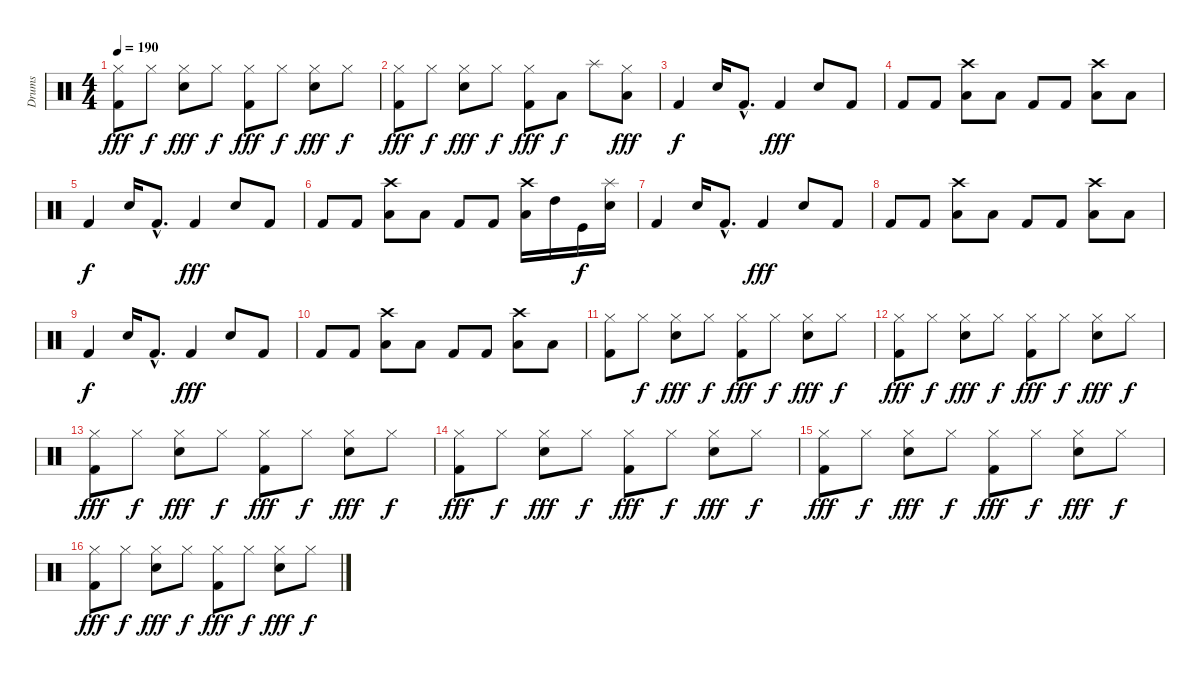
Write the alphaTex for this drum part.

\track ("Drums" "Drums") {instrument percussion}
\staff {score}
\articulation defaults
\ts (4 4)
\tempo 190
\clef neutral
\ks c
("Kick (hit) 2" "Hi-Hat (closed)").8{dy fff} "Hi-Hat (closed)".8{dy f} ("Snare (hit) 2" "Hi-Hat (closed)").8{dy fff} "Hi-Hat (closed)".8{dy f} ("Kick (hit) 2" "Hi-Hat (closed)").8{dy fff} "Hi-Hat (closed)".8{dy f} ("Snare (hit) 2" "Hi-Hat (closed)").8{dy fff} "Hi-Hat (closed)".8{dy f} |
("Kick (hit) 2" "Hi-Hat (closed)").8{dy fff} "Hi-Hat (closed)".8{dy f} ("Snare (hit) 2" "Hi-Hat (closed)").8{dy fff} "Hi-Hat (closed)".8{dy f} ("Kick (hit) 2" "Hi-Hat (closed)").8{dy fff} "Low Tom (hit)".8{dy f} "Splash (hit)".8 ("Low Tom (hit)" "Hi-Hat (closed)").8{dy fff} |
"Kick (hit) 2".4{dy f} "Snare (hit) 2".16 "Kick (hit) 2"{hac}.8{d} "Kick (hit) 2".4{dy fff} "Snare (hit) 2".8 "Kick (hit) 2".8 |
"Kick (hit) 2".8 "Kick (hit) 2".8 ("Low Tom (hit)" "Crash high (hit)").8 "Low Tom (hit)".8 "Kick (hit) 2".8 "Kick (hit) 2".8 ("Low Tom (hit)" "Crash high (hit)").8 "Low Tom (hit)".8 |
"Kick (hit) 2".4{dy f} "Snare (hit) 2".16 "Kick (hit) 2"{hac}.8{d} "Kick (hit) 2".4{dy fff} "Snare (hit) 2".8 "Kick (hit) 2".8 |
"Kick (hit) 2".8 "Kick (hit) 2".8 ("Low Tom (hit)" "Crash high (hit)").8 "Low Tom (hit)".8 "Kick (hit) 2".8 "Kick (hit) 2".8 ("Low Tom (hit)" "Crash high (hit)").16 "High Tom (hit)".16 "Kick (hit)".16{dy f} ("Snare (hit) 2" "Splash (hit)").16 |
"Kick (hit) 2".4 "Snare (hit) 2".16 "Kick (hit) 2"{hac}.8{d} "Kick (hit) 2".4{dy fff} "Snare (hit) 2".8 "Kick (hit) 2".8 |
"Kick (hit) 2".8 "Kick (hit) 2".8 ("Low Tom (hit)" "Crash high (hit)").8 "Low Tom (hit)".8 "Kick (hit) 2".8 "Kick (hit) 2".8 ("Low Tom (hit)" "Crash high (hit)").8 "Low Tom (hit)".8 |
"Kick (hit) 2".4{dy f} "Snare (hit) 2".16 "Kick (hit) 2"{hac}.8{d} "Kick (hit) 2".4{dy fff} "Snare (hit) 2".8 "Kick (hit) 2".8 |
"Kick (hit) 2".8 "Kick (hit) 2".8 ("Low Tom (hit)" "Crash high (hit)").8 "Low Tom (hit)".8 "Kick (hit) 2".8 "Kick (hit) 2".8 ("Low Tom (hit)" "Crash high (hit)").8 "Low Tom (hit)".8 |
("Kick (hit) 2" "Hi-Hat (closed)").8 "Hi-Hat (closed)".8{dy f} ("Snare (hit) 2" "Hi-Hat (closed)").8{dy fff} "Hi-Hat (closed)".8{dy f} ("Kick (hit) 2" "Hi-Hat (closed)").8{dy fff} "Hi-Hat (closed)".8{dy f} ("Snare (hit) 2" "Hi-Hat (closed)").8{dy fff} "Hi-Hat (closed)".8{dy f} |
("Kick (hit) 2" "Hi-Hat (closed)").8{dy fff} "Hi-Hat (closed)".8{dy f} ("Snare (hit) 2" "Hi-Hat (closed)").8{dy fff} "Hi-Hat (closed)".8{dy f} ("Kick (hit) 2" "Hi-Hat (closed)").8{dy fff} "Hi-Hat (closed)".8{dy f} ("Snare (hit) 2" "Hi-Hat (closed)").8{dy fff} "Hi-Hat (closed)".8{dy f} |
("Kick (hit) 2" "Hi-Hat (closed)").8{dy fff} "Hi-Hat (closed)".8{dy f} ("Snare (hit) 2" "Hi-Hat (closed)").8{dy fff} "Hi-Hat (closed)".8{dy f} ("Kick (hit) 2" "Hi-Hat (closed)").8{dy fff} "Hi-Hat (closed)".8{dy f} ("Snare (hit) 2" "Hi-Hat (closed)").8{dy fff} "Hi-Hat (closed)".8{dy f} |
("Kick (hit) 2" "Hi-Hat (closed)").8{dy fff} "Hi-Hat (closed)".8{dy f} ("Snare (hit) 2" "Hi-Hat (closed)").8{dy fff} "Hi-Hat (closed)".8{dy f} ("Kick (hit) 2" "Hi-Hat (closed)").8{dy fff} "Hi-Hat (closed)".8{dy f} ("Snare (hit) 2" "Hi-Hat (closed)").8{dy fff} "Hi-Hat (closed)".8{dy f} |
("Kick (hit) 2" "Hi-Hat (closed)").8{dy fff} "Hi-Hat (closed)".8{dy f} ("Snare (hit) 2" "Hi-Hat (closed)").8{dy fff} "Hi-Hat (closed)".8{dy f} ("Kick (hit) 2" "Hi-Hat (closed)").8{dy fff} "Hi-Hat (closed)".8{dy f} ("Snare (hit) 2" "Hi-Hat (closed)").8{dy fff} "Hi-Hat (closed)".8{dy f} |
("Kick (hit) 2" "Hi-Hat (closed)").8{dy fff} "Hi-Hat (closed)".8{dy f} ("Snare (hit) 2" "Hi-Hat (closed)").8{dy fff} "Hi-Hat (closed)".8{dy f} ("Kick (hit) 2" "Hi-Hat (closed)").8{dy fff} "Hi-Hat (closed)".8{dy f} ("Snare (hit) 2" "Hi-Hat (closed)").8{dy fff} "Hi-Hat (closed)".8{dy f}
